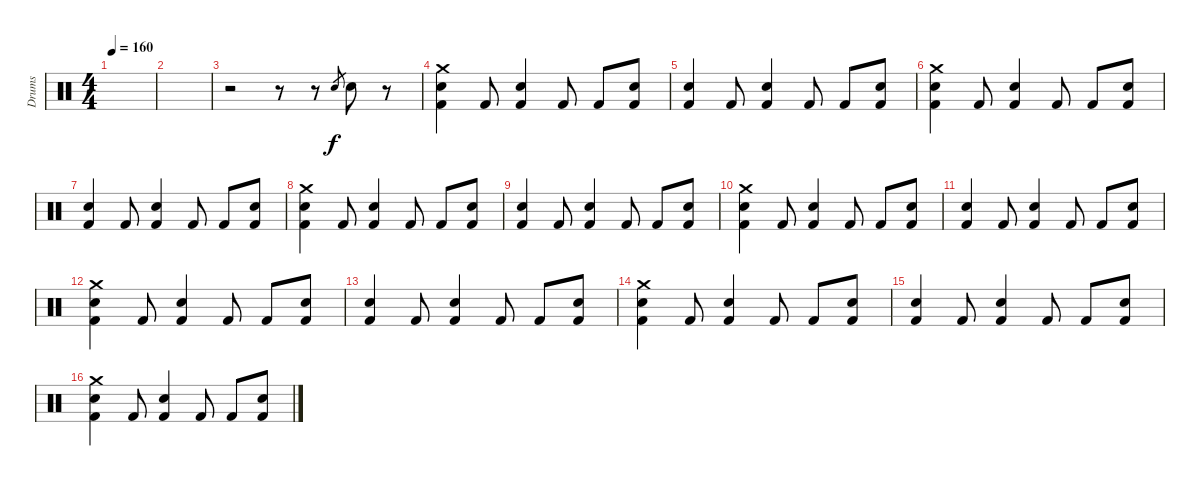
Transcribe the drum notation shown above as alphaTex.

\track ("Drums" "Drums") {instrument percussion}
\staff {score}
\articulation defaults
\ts (4 4)
\tempo 160
\clef neutral
\ks c
|
|
r.2 r.8 r.8 "Snare (hit) 2".8{gr} "Snare (hit) 2".8 r.8 |
("Kick (hit) 2" "Snare (hit) 2" "Crash medium (hit)").4 "Kick (hit) 2".8 ("Kick (hit) 2" "Snare (hit) 2").4 "Kick (hit) 2".8 "Kick (hit) 2".8 ("Kick (hit) 2" "Snare (hit) 2").8 |
("Kick (hit) 2" "Snare (hit) 2").4 "Kick (hit) 2".8 ("Kick (hit) 2" "Snare (hit) 2").4 "Kick (hit) 2".8 "Kick (hit) 2".8 ("Kick (hit) 2" "Snare (hit) 2").8 |
("Kick (hit) 2" "Snare (hit) 2" "Crash medium (hit)").4 "Kick (hit) 2".8 ("Kick (hit) 2" "Snare (hit) 2").4 "Kick (hit) 2".8 "Kick (hit) 2".8 ("Kick (hit) 2" "Snare (hit) 2").8 |
("Kick (hit) 2" "Snare (hit) 2").4 "Kick (hit) 2".8 ("Kick (hit) 2" "Snare (hit) 2").4 "Kick (hit) 2".8 "Kick (hit) 2".8 ("Kick (hit) 2" "Snare (hit) 2").8 |
("Kick (hit) 2" "Snare (hit) 2" "Crash medium (hit)").4 "Kick (hit) 2".8 ("Kick (hit) 2" "Snare (hit) 2").4 "Kick (hit) 2".8 "Kick (hit) 2".8 ("Kick (hit) 2" "Snare (hit) 2").8 |
("Kick (hit) 2" "Snare (hit) 2").4 "Kick (hit) 2".8 ("Kick (hit) 2" "Snare (hit) 2").4 "Kick (hit) 2".8 "Kick (hit) 2".8 ("Kick (hit) 2" "Snare (hit) 2").8 |
("Kick (hit) 2" "Snare (hit) 2" "Crash medium (hit)").4 "Kick (hit) 2".8 ("Kick (hit) 2" "Snare (hit) 2").4 "Kick (hit) 2".8 "Kick (hit) 2".8 ("Kick (hit) 2" "Snare (hit) 2").8 |
("Kick (hit) 2" "Snare (hit) 2").4 "Kick (hit) 2".8 ("Kick (hit) 2" "Snare (hit) 2").4 "Kick (hit) 2".8 "Kick (hit) 2".8 ("Kick (hit) 2" "Snare (hit) 2").8 |
("Kick (hit) 2" "Snare (hit) 2" "Crash medium (hit)").4 "Kick (hit) 2".8 ("Kick (hit) 2" "Snare (hit) 2").4 "Kick (hit) 2".8 "Kick (hit) 2".8 ("Kick (hit) 2" "Snare (hit) 2").8 |
("Kick (hit) 2" "Snare (hit) 2").4 "Kick (hit) 2".8 ("Kick (hit) 2" "Snare (hit) 2").4 "Kick (hit) 2".8 "Kick (hit) 2".8 ("Kick (hit) 2" "Snare (hit) 2").8 |
("Kick (hit) 2" "Snare (hit) 2" "Crash medium (hit)").4 "Kick (hit) 2".8 ("Kick (hit) 2" "Snare (hit) 2").4 "Kick (hit) 2".8 "Kick (hit) 2".8 ("Kick (hit) 2" "Snare (hit) 2").8 |
("Kick (hit) 2" "Snare (hit) 2").4 "Kick (hit) 2".8 ("Kick (hit) 2" "Snare (hit) 2").4 "Kick (hit) 2".8 "Kick (hit) 2".8 ("Kick (hit) 2" "Snare (hit) 2").8 |
("Kick (hit) 2" "Snare (hit) 2" "Crash medium (hit)").4 "Kick (hit) 2".8 ("Kick (hit) 2" "Snare (hit) 2").4 "Kick (hit) 2".8 "Kick (hit) 2".8 ("Kick (hit) 2" "Snare (hit) 2").8
